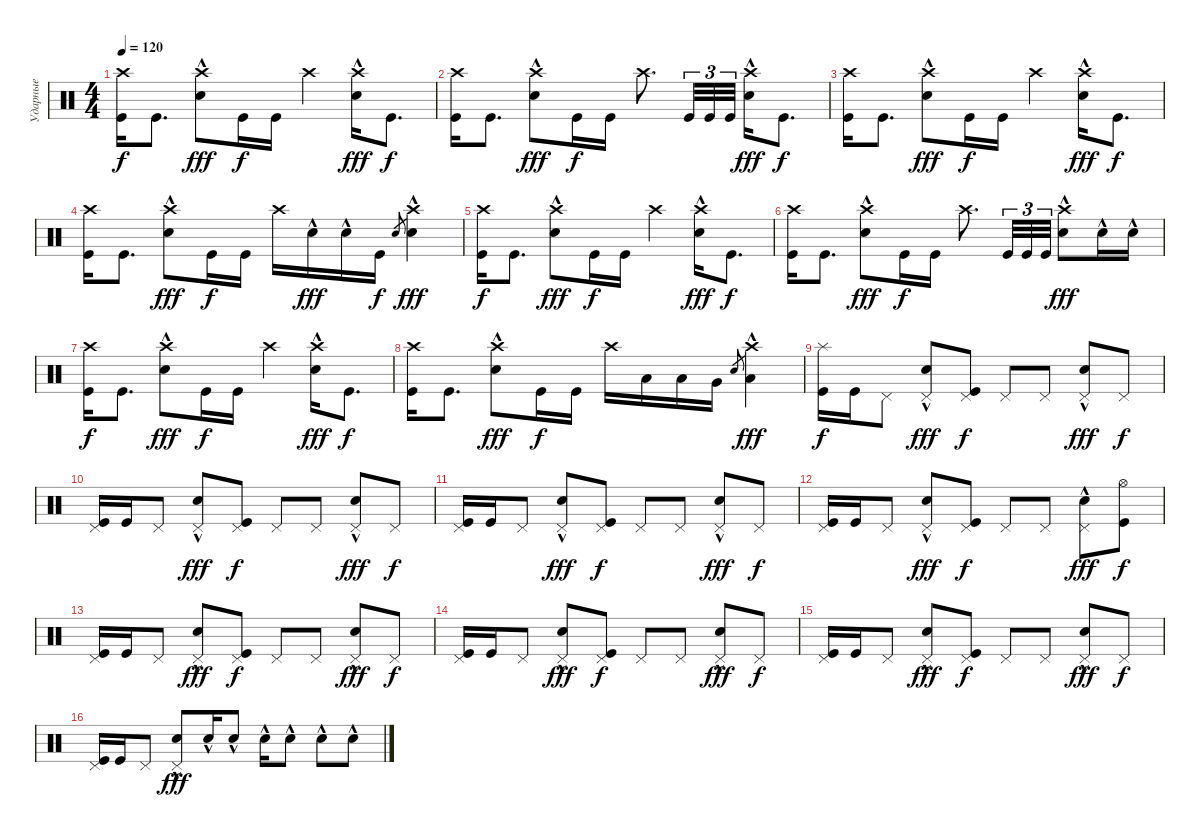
\track ("Ударные" "Ударные") {instrument percussion}
\staff {score}
\articulation defaults
\ts (4 4)
\tempo 120
\clef neutral
\ks c
("Kick (hit)" "Crash high (hit)").16{dy f} "Kick (hit)".8{d} ("Electric Snare (hit)"{hac} "Crash high (hit)").8{dy fff} "Kick (hit)".16{dy f} "Kick (hit)".16 "Crash high (hit)".4 ("Electric Snare (hit)"{hac} "Crash high (hit)").16{dy fff} "Kick (hit)".8{d dy f} |
("Kick (hit)" "Crash high (hit)").16 "Kick (hit)".8{d} ("Electric Snare (hit)"{hac} "Crash high (hit)").8{dy fff} "Kick (hit)".16{dy f} "Kick (hit)".16 "Crash high (hit)".8{d} "Kick (hit)".32{tu (3 2)} "Kick (hit)".32{tu (3 2)} "Kick (hit)".32{tu (3 2)} ("Electric Snare (hit)"{hac} "Crash high (hit)").16{dy fff} "Kick (hit)".8{d dy f} |
("Kick (hit)" "Crash high (hit)").16 "Kick (hit)".8{d} ("Electric Snare (hit)"{hac} "Crash high (hit)").8{dy fff} "Kick (hit)".16{dy f} "Kick (hit)".16 "Crash high (hit)".4 ("Electric Snare (hit)"{hac} "Crash high (hit)").16{dy fff} "Kick (hit)".8{d dy f} |
("Kick (hit)" "Crash high (hit)").16 "Kick (hit)".8{d} ("Electric Snare (hit)"{hac} "Crash high (hit)").8{dy fff} "Kick (hit)".16{dy f} "Kick (hit)".16 "Crash high (hit)".16 "Electric Snare (hit)"{hac}.16{dy fff} "Electric Snare (hit)"{hac}.16 "Kick (hit)".16{dy f} "Electric Snare (hit)".8{gr} ("Electric Snare (hit)"{hac} "Crash high (hit)").4{dy fff} |
("Kick (hit)" "Crash high (hit)").16{dy f} "Kick (hit)".8{d} ("Electric Snare (hit)"{hac} "Crash high (hit)").8{dy fff} "Kick (hit)".16{dy f} "Kick (hit)".16 "Crash high (hit)".4 ("Electric Snare (hit)"{hac} "Crash high (hit)").16{dy fff} "Kick (hit)".8{d dy f} |
("Kick (hit)" "Crash high (hit)").16 "Kick (hit)".8{d} ("Electric Snare (hit)"{hac} "Crash high (hit)").8{dy fff} "Kick (hit)".16{dy f} "Kick (hit)".16 "Crash high (hit)".8{d} "Kick (hit)".32{tu (3 2)} "Kick (hit)".32{tu (3 2)} "Kick (hit)".32{tu (3 2)} ("Electric Snare (hit)"{hac} "Crash high (hit)").8{dy fff} "Electric Snare (hit)"{hac}.16 "Electric Snare (hit)"{hac}.16 |
("Kick (hit)" "Crash high (hit)").16{dy f} "Kick (hit)".8{d} ("Electric Snare (hit)"{hac} "Crash high (hit)").8{dy fff} "Kick (hit)".16{dy f} "Kick (hit)".16 "Crash high (hit)".4 ("Electric Snare (hit)"{hac} "Crash high (hit)").16{dy fff} "Kick (hit)".8{d dy f} |
("Kick (hit)" "Crash high (hit)").16 "Kick (hit)".8{d} ("Electric Snare (hit)"{hac} "Crash high (hit)").8{dy fff} "Kick (hit)".16{dy f} "Kick (hit)".16 "Crash high (hit)".16 "Low Tom (hit)".16 "Low Tom (hit)".16 "Very Low Tom (hit)".16 "Electric Snare (hit)".8{gr} ("Low Floor Tom (hit)"{hac} "Crash high (hit)").4{dy fff} |
("Kick (hit)" "Splash (hit)").16{dy f} "Kick (hit)".16 "Pedal Hi-Hat (hit)".8 ("Electric Snare (hit)"{hac} "Pedal Hi-Hat (hit)").8{dy fff} ("Kick (hit)" "Pedal Hi-Hat (hit)").8{dy f} "Pedal Hi-Hat (hit)".8 "Pedal Hi-Hat (hit)".8 ("Electric Snare (hit)"{hac} "Pedal Hi-Hat (hit)").8{dy fff} "Pedal Hi-Hat (hit)".8{dy f} |
("Kick (hit)" "Pedal Hi-Hat (hit)").16 "Kick (hit)".16 "Pedal Hi-Hat (hit)".8 ("Electric Snare (hit)"{hac} "Pedal Hi-Hat (hit)").8{dy fff} ("Kick (hit)" "Pedal Hi-Hat (hit)").8{dy f} "Pedal Hi-Hat (hit)".8 "Pedal Hi-Hat (hit)".8 ("Electric Snare (hit)"{hac} "Pedal Hi-Hat (hit)").8{dy fff} "Pedal Hi-Hat (hit)".8{dy f} |
("Kick (hit)" "Pedal Hi-Hat (hit)").16 "Kick (hit)".16 "Pedal Hi-Hat (hit)".8 ("Electric Snare (hit)"{hac} "Pedal Hi-Hat (hit)").8{dy fff} ("Kick (hit)" "Pedal Hi-Hat (hit)").8{dy f} "Pedal Hi-Hat (hit)".8 "Pedal Hi-Hat (hit)".8 ("Electric Snare (hit)"{hac} "Pedal Hi-Hat (hit)").8{dy fff} "Pedal Hi-Hat (hit)".8{dy f} |
("Kick (hit)" "Pedal Hi-Hat (hit)").16 "Kick (hit)".16 "Pedal Hi-Hat (hit)".8 ("Electric Snare (hit)"{hac} "Pedal Hi-Hat (hit)").8{dy fff} ("Kick (hit)" "Pedal Hi-Hat (hit)").8{dy f} "Pedal Hi-Hat (hit)".8 "Pedal Hi-Hat (hit)".8 ("Electric Snare (hit)"{hac} "Pedal Hi-Hat (hit)").8{dy fff} ("Kick (hit)" "Hi-Hat (open)").8{dy f} |
("Kick (hit)" "Pedal Hi-Hat (hit)").16 "Kick (hit)".16 "Pedal Hi-Hat (hit)".8 ("Electric Snare (hit)"{hac} "Pedal Hi-Hat (hit)").8{dy fff} ("Kick (hit)" "Pedal Hi-Hat (hit)").8{dy f} "Pedal Hi-Hat (hit)".8 "Pedal Hi-Hat (hit)".8 ("Electric Snare (hit)"{hac} "Pedal Hi-Hat (hit)").8{dy fff} "Pedal Hi-Hat (hit)".8{dy f} |
("Kick (hit)" "Pedal Hi-Hat (hit)").16 "Kick (hit)".16 "Pedal Hi-Hat (hit)".8 ("Electric Snare (hit)"{hac} "Pedal Hi-Hat (hit)").8{dy fff} ("Kick (hit)" "Pedal Hi-Hat (hit)").8{dy f} "Pedal Hi-Hat (hit)".8 "Pedal Hi-Hat (hit)".8 ("Electric Snare (hit)"{hac} "Pedal Hi-Hat (hit)").8{dy fff} "Pedal Hi-Hat (hit)".8{dy f} |
("Kick (hit)" "Pedal Hi-Hat (hit)").16 "Kick (hit)".16 "Pedal Hi-Hat (hit)".8 ("Electric Snare (hit)"{hac} "Pedal Hi-Hat (hit)").8{dy fff} ("Kick (hit)" "Pedal Hi-Hat (hit)").8{dy f} "Pedal Hi-Hat (hit)".8 "Pedal Hi-Hat (hit)".8 ("Electric Snare (hit)"{hac} "Pedal Hi-Hat (hit)").8{dy fff} "Pedal Hi-Hat (hit)".8{dy f} |
("Kick (hit)" "Pedal Hi-Hat (hit)").16 "Kick (hit)".16 "Pedal Hi-Hat (hit)".8 ("Electric Snare (hit)"{hac} "Pedal Hi-Hat (hit)").8{dy fff} "Electric Snare (hit)"{hac}.16 "Electric Snare (hit)"{hac}.8 "Electric Snare (hit)"{hac}.16 "Electric Snare (hit)"{hac}.8 "Electric Snare (hit)"{hac}.8 "Electric Snare (hit)"{hac}.8
